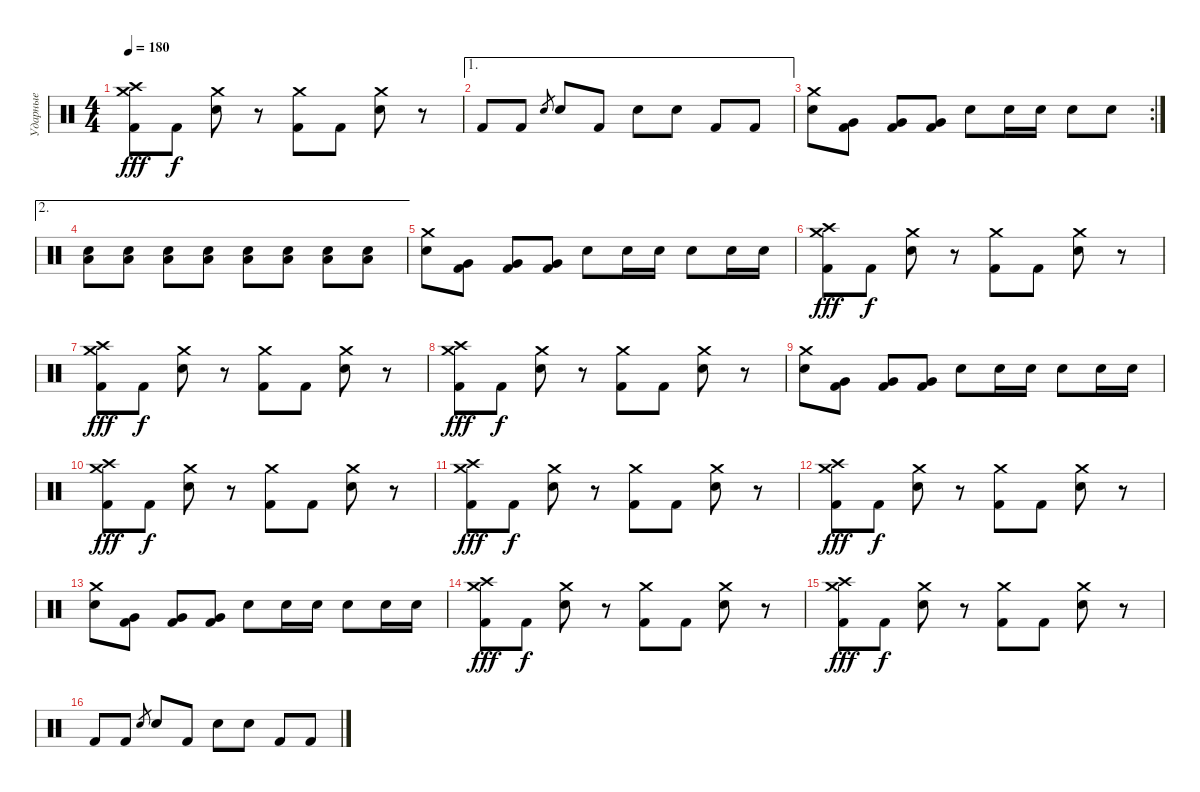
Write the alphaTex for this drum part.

\track ("Ударные" "Ударные") {instrument percussion}
\staff {score}
\articulation defaults
\ts (4 4)
\tempo 180
\clef neutral
\ks c
("Crash high (hit)" "Crash medium (hit)" "Kick (hit) 2").8{dy fff} "Kick (hit) 2".8{dy f} ("Crash medium (hit)" "Electric Snare (hit)").8 r.8 ("Crash medium (hit)" "Kick (hit) 2").8 "Kick (hit) 2".8 ("Crash medium (hit)" "Electric Snare (hit)").8 r.8 |
\ae 1 "Kick (hit) 2".8 "Kick (hit) 2".8 "Electric Snare (hit)".8{gr} "Electric Snare (hit)".8 "Kick (hit) 2".8 "Electric Snare (hit)".8 "Electric Snare (hit)".8 "Kick (hit) 2".8 "Kick (hit) 2".8
|
\rc 2
("Crash medium (hit)" "Electric Snare (hit)").8 ("Very Low Tom (hit)" "Kick (hit) 2").8 ("Very Low Tom (hit)" "Kick (hit) 2").8 ("Very Low Tom (hit)" "Kick (hit) 2").8 "Electric Snare (hit)".8 "Electric Snare (hit)".16 "Electric Snare (hit)".16 "Electric Snare (hit)".8 "Electric Snare (hit)".8 |
\ae 2
("Electric Snare (hit)" "Low Tom (hit)").8 ("Electric Snare (hit)" "Low Tom (hit)").8 ("Electric Snare (hit)" "Low Tom (hit)").8 ("Electric Snare (hit)" "Low Tom (hit)").8 ("Electric Snare (hit)" "Low Tom (hit)").8 ("Electric Snare (hit)" "Low Tom (hit)").8 ("Electric Snare (hit)" "Low Tom (hit)").8 ("Electric Snare (hit)" "Low Tom (hit)").8 |
("Crash medium (hit)" "Electric Snare (hit)").8 ("Very Low Tom (hit)" "Kick (hit) 2").8 ("Very Low Tom (hit)" "Kick (hit) 2").8 ("Very Low Tom (hit)" "Kick (hit) 2").8 "Electric Snare (hit)".8 "Electric Snare (hit)".16 "Electric Snare (hit)".16 "Electric Snare (hit)".8 "Electric Snare (hit)".16 "Electric Snare (hit)".16 |
("Crash high (hit)" "Crash medium (hit)" "Kick (hit) 2").8{dy fff} "Kick (hit) 2".8{dy f} ("Crash medium (hit)" "Electric Snare (hit)").8 r.8 ("Crash medium (hit)" "Kick (hit) 2").8 "Kick (hit) 2".8 ("Crash medium (hit)" "Electric Snare (hit)").8 r.8 |
("Crash high (hit)" "Crash medium (hit)" "Kick (hit) 2").8{dy fff} "Kick (hit) 2".8{dy f} ("Crash medium (hit)" "Electric Snare (hit)").8 r.8 ("Crash medium (hit)" "Kick (hit) 2").8 "Kick (hit) 2".8 ("Crash medium (hit)" "Electric Snare (hit)").8 r.8 |
("Crash high (hit)" "Crash medium (hit)" "Kick (hit) 2").8{dy fff} "Kick (hit) 2".8{dy f} ("Crash medium (hit)" "Electric Snare (hit)").8 r.8 ("Crash medium (hit)" "Kick (hit) 2").8 "Kick (hit) 2".8 ("Crash medium (hit)" "Electric Snare (hit)").8 r.8 |
("Crash medium (hit)" "Electric Snare (hit)").8 ("Very Low Tom (hit)" "Kick (hit) 2").8 ("Very Low Tom (hit)" "Kick (hit) 2").8 ("Very Low Tom (hit)" "Kick (hit) 2").8 "Electric Snare (hit)".8 "Electric Snare (hit)".16 "Electric Snare (hit)".16 "Electric Snare (hit)".8 "Electric Snare (hit)".16 "Electric Snare (hit)".16 |
("Crash high (hit)" "Crash medium (hit)" "Kick (hit) 2").8{dy fff} "Kick (hit) 2".8{dy f} ("Crash medium (hit)" "Electric Snare (hit)").8 r.8 ("Crash medium (hit)" "Kick (hit) 2").8 "Kick (hit) 2".8 ("Crash medium (hit)" "Electric Snare (hit)").8 r.8 |
("Crash high (hit)" "Crash medium (hit)" "Kick (hit) 2").8{dy fff} "Kick (hit) 2".8{dy f} ("Crash medium (hit)" "Electric Snare (hit)").8 r.8 ("Crash medium (hit)" "Kick (hit) 2").8 "Kick (hit) 2".8 ("Crash medium (hit)" "Electric Snare (hit)").8 r.8 |
("Crash high (hit)" "Crash medium (hit)" "Kick (hit) 2").8{dy fff} "Kick (hit) 2".8{dy f} ("Crash medium (hit)" "Electric Snare (hit)").8 r.8 ("Crash medium (hit)" "Kick (hit) 2").8 "Kick (hit) 2".8 ("Crash medium (hit)" "Electric Snare (hit)").8 r.8 |
("Crash medium (hit)" "Electric Snare (hit)").8 ("Very Low Tom (hit)" "Kick (hit) 2").8 ("Very Low Tom (hit)" "Kick (hit) 2").8 ("Very Low Tom (hit)" "Kick (hit) 2").8 "Electric Snare (hit)".8 "Electric Snare (hit)".16 "Electric Snare (hit)".16 "Electric Snare (hit)".8 "Electric Snare (hit)".16 "Electric Snare (hit)".16 |
("Crash high (hit)" "Crash medium (hit)" "Kick (hit) 2").8{dy fff} "Kick (hit) 2".8{dy f} ("Crash medium (hit)" "Electric Snare (hit)").8 r.8 ("Crash medium (hit)" "Kick (hit) 2").8 "Kick (hit) 2".8 ("Crash medium (hit)" "Electric Snare (hit)").8 r.8 |
("Crash high (hit)" "Crash medium (hit)" "Kick (hit) 2").8{dy fff} "Kick (hit) 2".8{dy f} ("Crash medium (hit)" "Electric Snare (hit)").8 r.8 ("Crash medium (hit)" "Kick (hit) 2").8 "Kick (hit) 2".8 ("Crash medium (hit)" "Electric Snare (hit)").8 r.8 |
"Kick (hit) 2".8 "Kick (hit) 2".8 "Electric Snare (hit)".8{gr} "Electric Snare (hit)".8 "Kick (hit) 2".8 "Electric Snare (hit)".8 "Electric Snare (hit)".8 "Kick (hit) 2".8 "Kick (hit) 2".8
